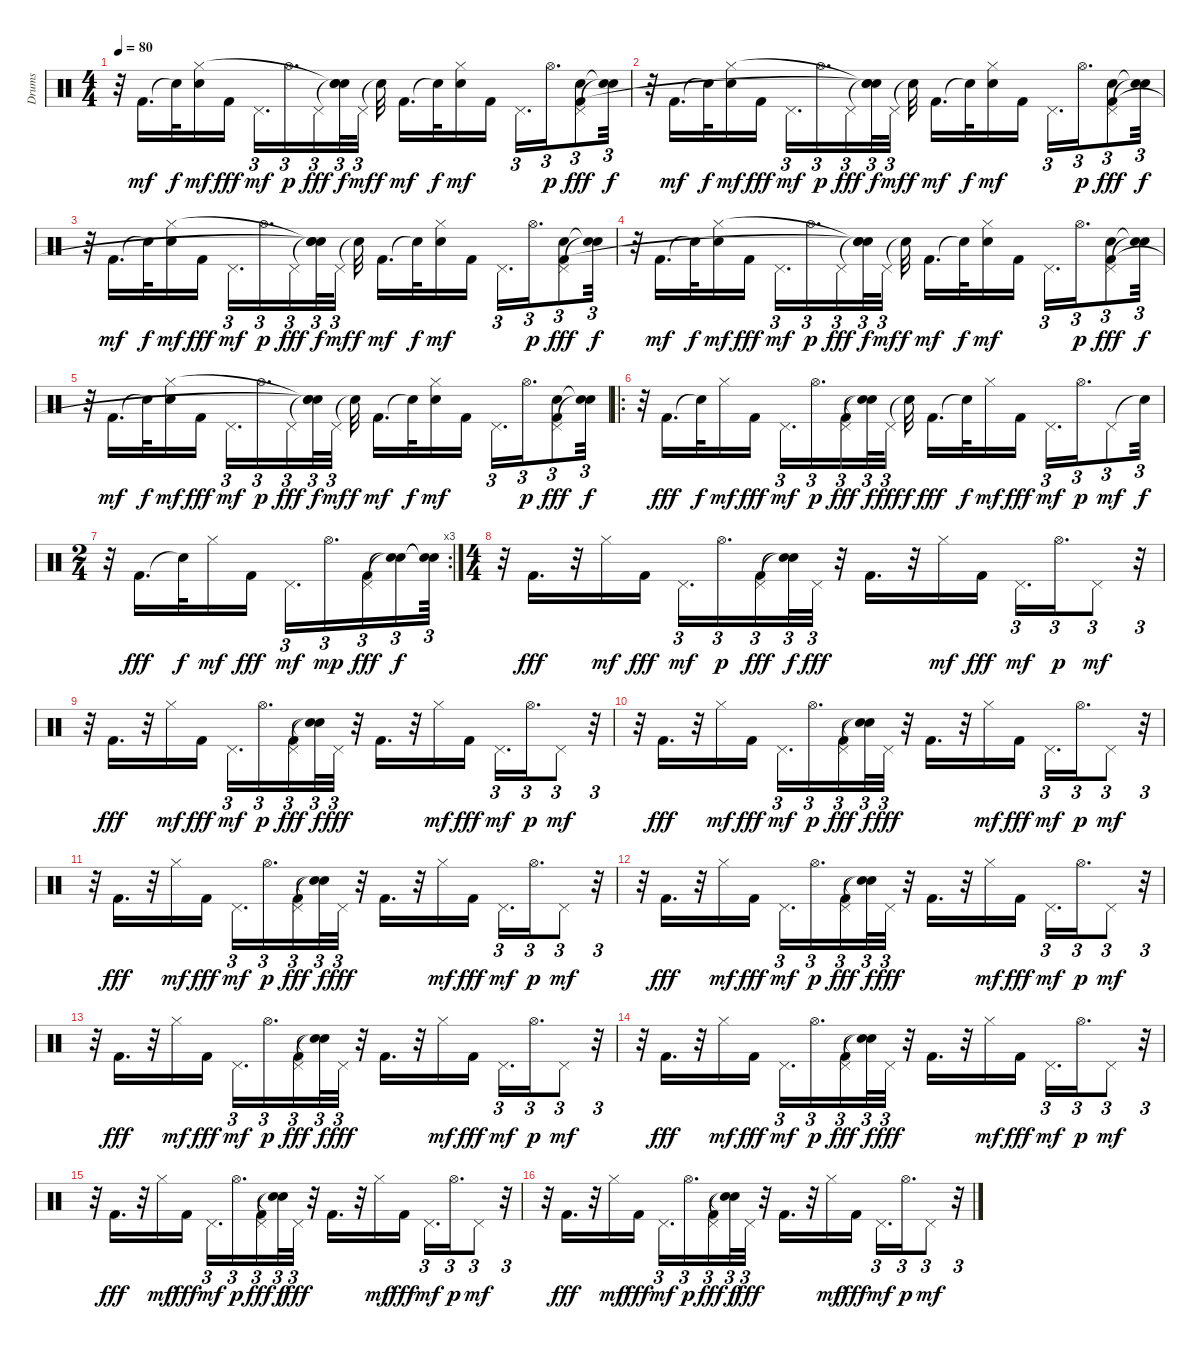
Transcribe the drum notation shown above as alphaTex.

\track ("Drums" "Drums") {instrument percussion}
\staff {score}
\articulation defaults
\ts (4 4)
\tempo 80
\clef neutral
\ks c
r.32{dy f} "Kick (hit) 2".16{d dy mf} "Snare (hit)"{t}.32{dy f} ("Electric Snare (hit)" "Hi-Hat (closed)").16{dy mf} "Kick (hit) 2".16{dy fff} "Pedal Hi-Hat (hit)".16{d tu (3 2) dy mf} "Hi-Hat (open)".16{d tu (3 2) dy p} "Pedal Hi-Hat (hit)".16{tu (3 2) dy fff} ("Snare (hit)"{t} "Snare (hit)"{t} "Snare (hit)"{t}).32{tu (3 2) dy f beam splitsecondary} "Pedal Hi-Hat (hit)".32{tu (3 2) dy mf} "Snare (hit)"{t}.32{dy f} "Kick (hit) 2".16{d dy mf} "Snare (hit)"{t}.32{dy f} ("Electric Snare (hit)" "Hi-Hat (closed)").16{dy mf} "Kick (hit) 2".16 "Pedal Hi-Hat (hit)".16{d tu (3 2)} "Hi-Hat (open)".16{d tu (3 2) dy p} ("Electric Snare (hit)" "Pedal Hi-Hat (hit)" "Kick (hit) 2").8{tu (3 2) dy fff} ("Snare (hit)"{t} "Snare (hit)"{t}).32{tu (3 2) dy f} |
r.32 "Kick (hit) 2".16{d dy mf} "Snare (hit)"{t}.32{dy f} ("Electric Snare (hit)" "Hi-Hat (closed)").16{dy mf} "Kick (hit) 2".16{dy fff} "Pedal Hi-Hat (hit)".16{d tu (3 2) dy mf} "Hi-Hat (open)".16{d tu (3 2) dy p} "Pedal Hi-Hat (hit)".16{tu (3 2) dy fff} ("Snare (hit)"{t} "Snare (hit)"{t} "Snare (hit)"{t}).32{tu (3 2) dy f beam splitsecondary} "Pedal Hi-Hat (hit)".32{tu (3 2) dy mf} "Snare (hit)"{t}.32{dy f} "Kick (hit) 2".16{d dy mf} "Snare (hit)"{t}.32{dy f} ("Electric Snare (hit)" "Hi-Hat (closed)").16{dy mf} "Kick (hit) 2".16 "Pedal Hi-Hat (hit)".16{d tu (3 2)} "Hi-Hat (open)".16{d tu (3 2) dy p} ("Electric Snare (hit)" "Pedal Hi-Hat (hit)" "Kick (hit) 2").8{tu (3 2) dy fff} ("Snare (hit)"{t} "Snare (hit)"{t}).32{tu (3 2) dy f} |
r.32 "Kick (hit) 2".16{d dy mf} "Snare (hit)"{t}.32{dy f} ("Electric Snare (hit)" "Hi-Hat (closed)").16{dy mf} "Kick (hit) 2".16{dy fff} "Pedal Hi-Hat (hit)".16{d tu (3 2) dy mf} "Hi-Hat (open)".16{d tu (3 2) dy p} "Pedal Hi-Hat (hit)".16{tu (3 2) dy fff} ("Snare (hit)"{t} "Snare (hit)"{t} "Snare (hit)"{t}).32{tu (3 2) dy f beam splitsecondary} "Pedal Hi-Hat (hit)".32{tu (3 2) dy mf} "Snare (hit)"{t}.32{dy f} "Kick (hit) 2".16{d dy mf} "Snare (hit)"{t}.32{dy f} ("Electric Snare (hit)" "Hi-Hat (closed)").16{dy mf} "Kick (hit) 2".16 "Pedal Hi-Hat (hit)".16{d tu (3 2)} "Hi-Hat (open)".16{d tu (3 2) dy p} ("Electric Snare (hit)" "Pedal Hi-Hat (hit)" "Kick (hit) 2").8{tu (3 2) dy fff} ("Snare (hit)"{t} "Snare (hit)"{t}).32{tu (3 2) dy f} |
r.32 "Kick (hit) 2".16{d dy mf} "Snare (hit)"{t}.32{dy f} ("Electric Snare (hit)" "Hi-Hat (closed)").16{dy mf} "Kick (hit) 2".16{dy fff} "Pedal Hi-Hat (hit)".16{d tu (3 2) dy mf} "Hi-Hat (open)".16{d tu (3 2) dy p} "Pedal Hi-Hat (hit)".16{tu (3 2) dy fff} ("Snare (hit)"{t} "Snare (hit)"{t} "Snare (hit)"{t}).32{tu (3 2) dy f beam splitsecondary} "Pedal Hi-Hat (hit)".32{tu (3 2) dy mf} "Snare (hit)"{t}.32{dy f} "Kick (hit) 2".16{d dy mf} "Snare (hit)"{t}.32{dy f} ("Electric Snare (hit)" "Hi-Hat (closed)").16{dy mf} "Kick (hit) 2".16 "Pedal Hi-Hat (hit)".16{d tu (3 2)} "Hi-Hat (open)".16{d tu (3 2) dy p} ("Electric Snare (hit)" "Pedal Hi-Hat (hit)" "Kick (hit) 2").8{tu (3 2) dy fff} ("Snare (hit)"{t} "Snare (hit)"{t}).32{tu (3 2) dy f} |
r.32 "Kick (hit) 2".16{d dy mf} "Snare (hit)"{t}.32{dy f} ("Electric Snare (hit)" "Hi-Hat (closed)").16{dy mf} "Kick (hit) 2".16{dy fff} "Pedal Hi-Hat (hit)".16{d tu (3 2) dy mf} "Hi-Hat (open)".16{d tu (3 2) dy p} "Pedal Hi-Hat (hit)".16{tu (3 2) dy fff} ("Snare (hit)"{t} "Snare (hit)"{t} "Snare (hit)"{t}).32{tu (3 2) dy f beam splitsecondary} "Pedal Hi-Hat (hit)".32{tu (3 2) dy mf} "Snare (hit)"{t}.32{dy f} "Kick (hit) 2".16{d dy mf} "Snare (hit)"{t}.32{dy f} ("Electric Snare (hit)" "Hi-Hat (closed)").16{dy mf} "Kick (hit) 2".16 "Pedal Hi-Hat (hit)".16{d tu (3 2)} "Hi-Hat (open)".16{d tu (3 2) dy p} ("Electric Snare (hit)" "Pedal Hi-Hat (hit)" "Kick (hit) 2").8{tu (3 2) dy fff} ("Snare (hit)"{t} "Snare (hit)"{t}).32{tu (3 2) dy f} |
\ro
r.32 "Kick (hit) 2".16{d dy fff} "Snare (hit)"{t}.32{dy f} "Hi-Hat (closed)".16{dy mf} "Kick (hit) 2".16{dy fff} "Pedal Hi-Hat (hit)".16{d tu (3 2) dy mf} "Hi-Hat (open)".16{d tu (3 2) dy p} ("Pedal Hi-Hat (hit)" "Kick (hit) 2").16{tu (3 2) dy fff} ("Snare (hit)"{t} "Snare (hit)"{t}).32{tu (3 2) dy f beam splitsecondary} "Pedal Hi-Hat (hit)".32{tu (3 2) dy fff} "Snare (hit)"{t}.32{dy f} "Kick (hit) 2".16{d dy fff} "Snare (hit)"{t}.32{dy f} "Hi-Hat (closed)".16{dy mf} "Kick (hit) 2".16{dy fff} "Pedal Hi-Hat (hit)".16{d tu (3 2) dy mf} "Hi-Hat (open)".16{d tu (3 2) dy p} "Pedal Hi-Hat (hit)".8{tu (3 2) dy mf} "Snare (hit)"{t}.32{tu (3 2) dy f} |
\rc 3
\ts (2 4)
r.32 "Kick (hit) 2".16{d dy fff} "Snare (hit)"{t}.32{dy f} "Hi-Hat (closed)".16{dy mf} "Kick (hit) 2".16{dy fff} "Pedal Hi-Hat (hit)".16{d tu (3 2) dy mf} "Hi-Hat (open)".16{d tu (3 2) dy mp} ("Pedal Hi-Hat (hit)" "Kick (hit) 2").16{tu (3 2) dy fff} ("Snare (hit)"{t} "Snare (hit)"{t}).16{tu (3 2) dy f} ("Snare (hit)"{t} "Snare (hit)"{t}).64{tu (3 2)} |
\ts (4 4)
r.32 "Kick (hit) 2".16{d dy fff} r.32 "Hi-Hat (closed)".16{dy mf} "Kick (hit) 2".16{dy fff} "Pedal Hi-Hat (hit)".16{d tu (3 2) dy mf} "Hi-Hat (open)".16{d tu (3 2) dy p} ("Pedal Hi-Hat (hit)" "Kick (hit) 2").16{tu (3 2) dy fff} ("Snare (hit)"{t} "Snare (hit)"{t}).32{tu (3 2) dy f} "Pedal Hi-Hat (hit)".32{tu (3 2) dy fff} r.32 "Kick (hit) 2".16{d} r.32 "Hi-Hat (closed)".16{dy mf} "Kick (hit) 2".16{dy fff} "Pedal Hi-Hat (hit)".16{d tu (3 2) dy mf} "Hi-Hat (open)".16{d tu (3 2) dy p} "Pedal Hi-Hat (hit)".8{tu (3 2) dy mf} r.32{tu (3 2)} |
r.32 "Kick (hit) 2".16{d dy fff} r.32 "Hi-Hat (closed)".16{dy mf} "Kick (hit) 2".16{dy fff} "Pedal Hi-Hat (hit)".16{d tu (3 2) dy mf} "Hi-Hat (open)".16{d tu (3 2) dy p} ("Pedal Hi-Hat (hit)" "Kick (hit) 2").16{tu (3 2) dy fff} ("Snare (hit)"{t} "Snare (hit)"{t}).32{tu (3 2) dy f} "Pedal Hi-Hat (hit)".32{tu (3 2) dy fff} r.32 "Kick (hit) 2".16{d} r.32 "Hi-Hat (closed)".16{dy mf} "Kick (hit) 2".16{dy fff} "Pedal Hi-Hat (hit)".16{d tu (3 2) dy mf} "Hi-Hat (open)".16{d tu (3 2) dy p} "Pedal Hi-Hat (hit)".8{tu (3 2) dy mf} r.32{tu (3 2)} |
r.32 "Kick (hit) 2".16{d dy fff} r.32 "Hi-Hat (closed)".16{dy mf} "Kick (hit) 2".16{dy fff} "Pedal Hi-Hat (hit)".16{d tu (3 2) dy mf} "Hi-Hat (open)".16{d tu (3 2) dy p} ("Pedal Hi-Hat (hit)" "Kick (hit) 2").16{tu (3 2) dy fff} ("Snare (hit)"{t} "Snare (hit)"{t}).32{tu (3 2) dy f} "Pedal Hi-Hat (hit)".32{tu (3 2) dy fff} r.32 "Kick (hit) 2".16{d} r.32 "Hi-Hat (closed)".16{dy mf} "Kick (hit) 2".16{dy fff} "Pedal Hi-Hat (hit)".16{d tu (3 2) dy mf} "Hi-Hat (open)".16{d tu (3 2) dy p} "Pedal Hi-Hat (hit)".8{tu (3 2) dy mf} r.32{tu (3 2)} |
r.32 "Kick (hit) 2".16{d dy fff} r.32 "Hi-Hat (closed)".16{dy mf} "Kick (hit) 2".16{dy fff} "Pedal Hi-Hat (hit)".16{d tu (3 2) dy mf} "Hi-Hat (open)".16{d tu (3 2) dy p} ("Pedal Hi-Hat (hit)" "Kick (hit) 2").16{tu (3 2) dy fff} ("Snare (hit)"{t} "Snare (hit)"{t}).32{tu (3 2) dy f} "Pedal Hi-Hat (hit)".32{tu (3 2) dy fff} r.32 "Kick (hit) 2".16{d} r.32 "Hi-Hat (closed)".16{dy mf} "Kick (hit) 2".16{dy fff} "Pedal Hi-Hat (hit)".16{d tu (3 2) dy mf} "Hi-Hat (open)".16{d tu (3 2) dy p} "Pedal Hi-Hat (hit)".8{tu (3 2) dy mf} r.32{tu (3 2)} |
r.32 "Kick (hit) 2".16{d dy fff} r.32 "Hi-Hat (closed)".16{dy mf} "Kick (hit) 2".16{dy fff} "Pedal Hi-Hat (hit)".16{d tu (3 2) dy mf} "Hi-Hat (open)".16{d tu (3 2) dy p} ("Pedal Hi-Hat (hit)" "Kick (hit) 2").16{tu (3 2) dy fff} ("Snare (hit)"{t} "Snare (hit)"{t}).32{tu (3 2) dy f} "Pedal Hi-Hat (hit)".32{tu (3 2) dy fff} r.32 "Kick (hit) 2".16{d} r.32 "Hi-Hat (closed)".16{dy mf} "Kick (hit) 2".16{dy fff} "Pedal Hi-Hat (hit)".16{d tu (3 2) dy mf} "Hi-Hat (open)".16{d tu (3 2) dy p} "Pedal Hi-Hat (hit)".8{tu (3 2) dy mf} r.32{tu (3 2)} |
r.32 "Kick (hit) 2".16{d dy fff} r.32 "Hi-Hat (closed)".16{dy mf} "Kick (hit) 2".16{dy fff} "Pedal Hi-Hat (hit)".16{d tu (3 2) dy mf} "Hi-Hat (open)".16{d tu (3 2) dy p} ("Pedal Hi-Hat (hit)" "Kick (hit) 2").16{tu (3 2) dy fff} ("Snare (hit)"{t} "Snare (hit)"{t}).32{tu (3 2) dy f} "Pedal Hi-Hat (hit)".32{tu (3 2) dy fff} r.32 "Kick (hit) 2".16{d} r.32 "Hi-Hat (closed)".16{dy mf} "Kick (hit) 2".16{dy fff} "Pedal Hi-Hat (hit)".16{d tu (3 2) dy mf} "Hi-Hat (open)".16{d tu (3 2) dy p} "Pedal Hi-Hat (hit)".8{tu (3 2) dy mf} r.32{tu (3 2)} |
r.32 "Kick (hit) 2".16{d dy fff} r.32 "Hi-Hat (closed)".16{dy mf} "Kick (hit) 2".16{dy fff} "Pedal Hi-Hat (hit)".16{d tu (3 2) dy mf} "Hi-Hat (open)".16{d tu (3 2) dy p} ("Pedal Hi-Hat (hit)" "Kick (hit) 2").16{tu (3 2) dy fff} ("Snare (hit)"{t} "Snare (hit)"{t}).32{tu (3 2) dy f} "Pedal Hi-Hat (hit)".32{tu (3 2) dy fff} r.32 "Kick (hit) 2".16{d} r.32 "Hi-Hat (closed)".16{dy mf} "Kick (hit) 2".16{dy fff} "Pedal Hi-Hat (hit)".16{d tu (3 2) dy mf} "Hi-Hat (open)".16{d tu (3 2) dy p} "Pedal Hi-Hat (hit)".8{tu (3 2) dy mf} r.32{tu (3 2)} |
r.32 "Kick (hit) 2".16{d dy fff} r.32 "Hi-Hat (closed)".16{dy mf} "Kick (hit) 2".16{dy fff} "Pedal Hi-Hat (hit)".16{d tu (3 2) dy mf} "Hi-Hat (open)".16{d tu (3 2) dy p} ("Pedal Hi-Hat (hit)" "Kick (hit) 2").16{tu (3 2) dy fff} ("Snare (hit)"{t} "Snare (hit)"{t}).32{tu (3 2) dy f} "Pedal Hi-Hat (hit)".32{tu (3 2) dy fff} r.32 "Kick (hit) 2".16{d} r.32 "Hi-Hat (closed)".16{dy mf} "Kick (hit) 2".16{dy fff} "Pedal Hi-Hat (hit)".16{d tu (3 2) dy mf} "Hi-Hat (open)".16{d tu (3 2) dy p} "Pedal Hi-Hat (hit)".8{tu (3 2) dy mf} r.32{tu (3 2)} |
r.32 "Kick (hit) 2".16{d dy fff} r.32 "Hi-Hat (closed)".16{dy mf} "Kick (hit) 2".16{dy fff} "Pedal Hi-Hat (hit)".16{d tu (3 2) dy mf} "Hi-Hat (open)".16{d tu (3 2) dy p} ("Pedal Hi-Hat (hit)" "Kick (hit) 2").16{tu (3 2) dy fff} ("Snare (hit)"{t} "Snare (hit)"{t}).32{tu (3 2) dy f} "Pedal Hi-Hat (hit)".32{tu (3 2) dy fff} r.32 "Kick (hit) 2".16{d} r.32 "Hi-Hat (closed)".16{dy mf} "Kick (hit) 2".16{dy fff} "Pedal Hi-Hat (hit)".16{d tu (3 2) dy mf} "Hi-Hat (open)".16{d tu (3 2) dy p} "Pedal Hi-Hat (hit)".8{tu (3 2) dy mf} r.32{tu (3 2)}
